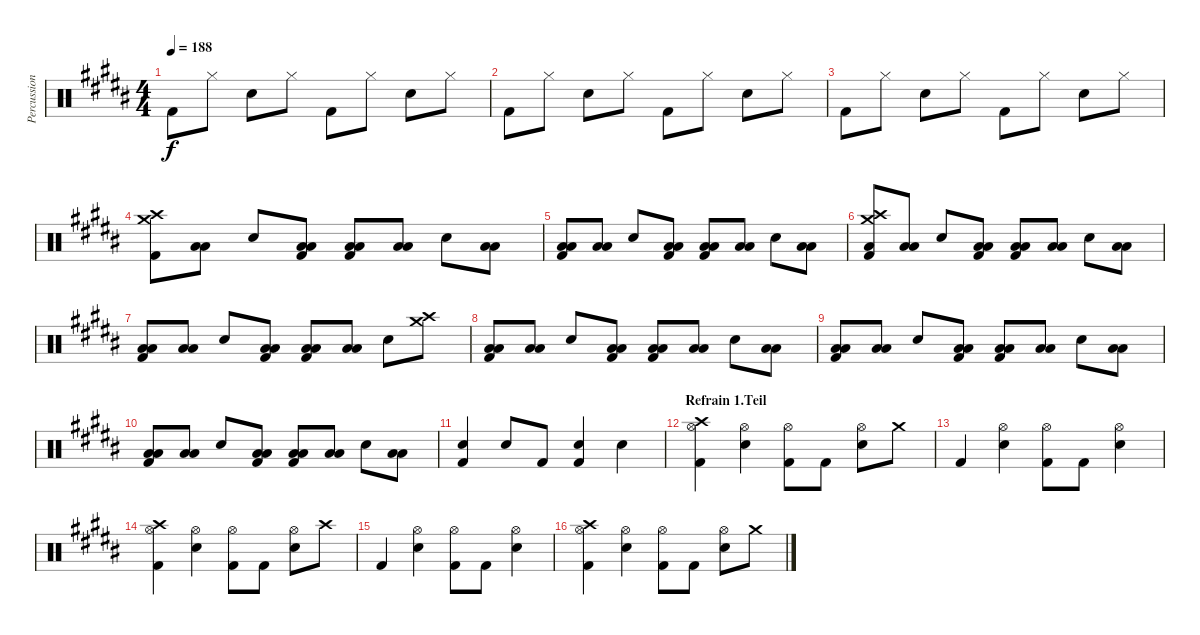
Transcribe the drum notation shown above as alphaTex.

\track ("Percussion" "Percussion") {instrument percussion}
\staff {score}
\articulation defaults
\ts (4 4)
\tempo 188
\clef neutral
\ks b "Kick (hit) 2".8{dy f} "Hi-Hat (closed)".8 "Electric Snare (hit)".8 "Hi-Hat (closed)".8 "Kick (hit) 2".8 "Hi-Hat (closed)".8 "Electric Snare (hit)".8 "Hi-Hat (closed)".8
|
"Kick (hit) 2".8 "Hi-Hat (closed)".8 "Electric Snare (hit)".8 "Hi-Hat (closed)".8 "Kick (hit) 2".8 "Hi-Hat (closed)".8 "Electric Snare (hit)".8 "Hi-Hat (closed)".8 |
"Kick (hit) 2".8 "Hi-Hat (closed)".8 "Electric Snare (hit)".8 "Hi-Hat (closed)".8 "Kick (hit) 2".8 "Hi-Hat (closed)".8 "Electric Snare (hit)".8 "Hi-Hat (closed)".8 |
("Crash high (hit)" "Crash medium (hit)" "Kick (hit) 2").8 ("Low Tom (hit)" "Low Floor Tom (hit)").8 "Electric Snare (hit)".8 ("Low Tom (hit)" "Low Floor Tom (hit)" "Kick (hit) 2").8 ("Low Tom (hit)" "Low Floor Tom (hit)" "Kick (hit) 2").8 ("Low Tom (hit)" "Low Floor Tom (hit)").8 "Electric Snare (hit)".8 ("Low Tom (hit)" "Low Floor Tom (hit)").8 |
("Low Tom (hit)" "Low Floor Tom (hit)" "Kick (hit) 2").8 ("Low Tom (hit)" "Low Floor Tom (hit)").8 "Electric Snare (hit)".8 ("Low Tom (hit)" "Low Floor Tom (hit)" "Kick (hit) 2").8 ("Low Tom (hit)" "Low Floor Tom (hit)" "Kick (hit) 2").8 ("Low Tom (hit)" "Low Floor Tom (hit)").8 "Electric Snare (hit)".8 ("Low Tom (hit)" "Low Floor Tom (hit)").8 |
("Crash medium (hit)" "Crash high (hit)" "Low Floor Tom (hit)" "Kick (hit) 2").8 ("Low Tom (hit)" "Low Floor Tom (hit)").8 "Electric Snare (hit)".8 ("Low Tom (hit)" "Low Floor Tom (hit)" "Kick (hit) 2").8 ("Low Tom (hit)" "Low Floor Tom (hit)" "Kick (hit) 2").8 ("Low Tom (hit)" "Low Floor Tom (hit)").8 "Electric Snare (hit)".8 ("Low Tom (hit)" "Low Floor Tom (hit)").8 |
("Low Tom (hit)" "Low Floor Tom (hit)" "Kick (hit) 2").8 ("Low Tom (hit)" "Low Floor Tom (hit)").8 "Electric Snare (hit)".8 ("Low Tom (hit)" "Low Floor Tom (hit)" "Kick (hit) 2").8 ("Low Tom (hit)" "Low Floor Tom (hit)" "Kick (hit) 2").8 ("Low Tom (hit)" "Low Floor Tom (hit)").8 "Electric Snare (hit)".8 ("Crash high (hit)" "Crash medium (hit)").8 |
("Low Tom (hit)" "Low Floor Tom (hit)" "Kick (hit) 2").8 ("Low Tom (hit)" "Low Floor Tom (hit)").8 "Electric Snare (hit)".8 ("Low Tom (hit)" "Low Floor Tom (hit)" "Kick (hit) 2").8 ("Low Tom (hit)" "Low Floor Tom (hit)" "Kick (hit) 2").8 ("Low Tom (hit)" "Low Floor Tom (hit)").8 "Electric Snare (hit)".8 ("Low Tom (hit)" "Low Floor Tom (hit)").8 |
("Low Tom (hit)" "Low Floor Tom (hit)" "Kick (hit) 2").8 ("Low Tom (hit)" "Low Floor Tom (hit)").8 "Electric Snare (hit)".8 ("Low Tom (hit)" "Low Floor Tom (hit)" "Kick (hit) 2").8 ("Low Tom (hit)" "Low Floor Tom (hit)" "Kick (hit) 2").8 ("Low Tom (hit)" "Low Floor Tom (hit)").8 "Electric Snare (hit)".8 ("Low Tom (hit)" "Low Floor Tom (hit)").8 |
("Low Tom (hit)" "Low Floor Tom (hit)" "Kick (hit) 2").8 ("Low Tom (hit)" "Low Floor Tom (hit)").8 "Electric Snare (hit)".8 ("Low Tom (hit)" "Low Floor Tom (hit)" "Kick (hit) 2").8 ("Low Tom (hit)" "Low Floor Tom (hit)" "Kick (hit) 2").8 ("Low Tom (hit)" "Low Floor Tom (hit)").8 "Electric Snare (hit)".8 ("Low Tom (hit)" "Low Floor Tom (hit)").8 |
("Electric Snare (hit)" "Kick (hit) 2").4 "Electric Snare (hit)".8 "Kick (hit) 2".8 ("Electric Snare (hit)" "Kick (hit) 2").4 "Electric Snare (hit)".4 |
\section ("" "Refrain 1.Teil")
("Crash high (hit)" "Hi-Hat (open)" "Kick (hit) 2").4 ("Hi-Hat (open)" "Electric Snare (hit)").4 ("Hi-Hat (open)" "Kick (hit) 2").8 "Kick (hit) 2".8 ("Hi-Hat (open)" "Electric Snare (hit)").8 "Crash medium (hit)".8 |
"Kick (hit) 2".4 ("Hi-Hat (open)" "Electric Snare (hit)").4 ("Hi-Hat (open)" "Kick (hit) 2").8 "Kick (hit) 2".8 ("Hi-Hat (open)" "Electric Snare (hit)").4 |
("Crash high (hit)" "Hi-Hat (open)" "Kick (hit) 2").4 ("Hi-Hat (open)" "Electric Snare (hit)").4 ("Hi-Hat (open)" "Kick (hit) 2").8 "Kick (hit) 2".8 ("Hi-Hat (open)" "Electric Snare (hit)").8 "Crash high (hit)".8 |
"Kick (hit) 2".4 ("Hi-Hat (open)" "Electric Snare (hit)").4 ("Hi-Hat (open)" "Kick (hit) 2").8 "Kick (hit) 2".8 ("Hi-Hat (open)" "Electric Snare (hit)").4 |
("Crash high (hit)" "Hi-Hat (open)" "Kick (hit) 2").4 ("Hi-Hat (open)" "Electric Snare (hit)").4 ("Hi-Hat (open)" "Kick (hit) 2").8 "Kick (hit) 2".8 ("Hi-Hat (open)" "Electric Snare (hit)").8 "Crash medium (hit)".8
